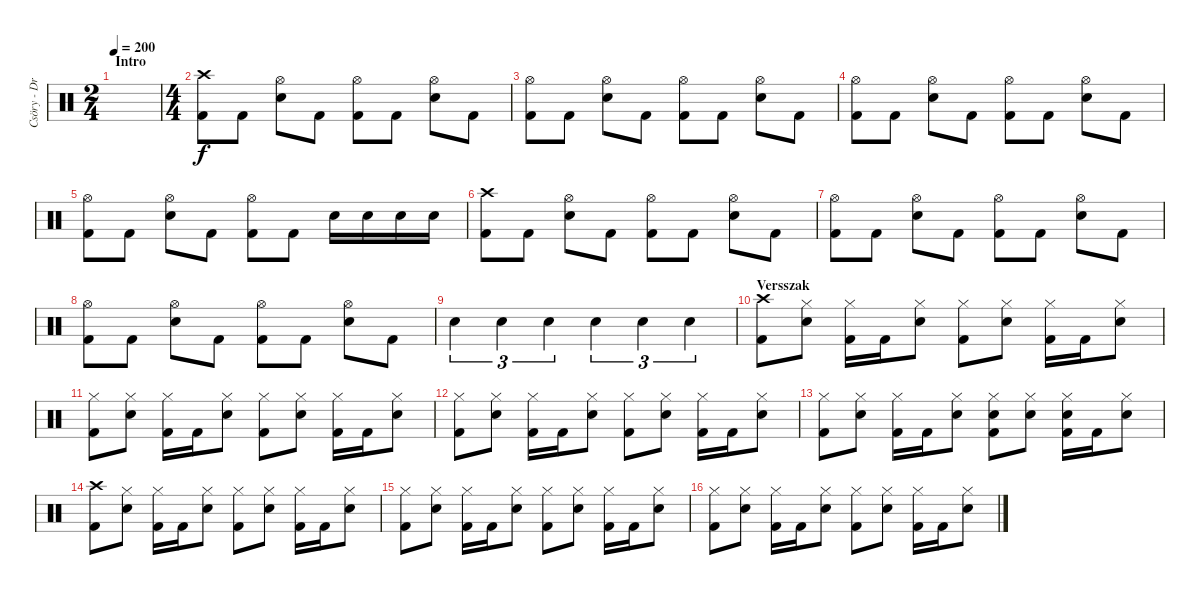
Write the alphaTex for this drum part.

\track ("Csöry - DrumZ" "Csöry - Dr") {instrument percussion}
\staff {score}
\articulation defaults
\ts (2 4)
\section ("" "Intro")
\tempo 200
\clef neutral
\ks c
|
\ts (4 4)
("Crash high (hit)" "Kick (hit) 2").8 "Kick (hit) 2".8 ("Hi-Hat (open)" "Snare (hit) 2").8 "Kick (hit) 2".8 ("Hi-Hat (open)" "Kick (hit) 2").8 "Kick (hit) 2".8 ("Hi-Hat (open)" "Snare (hit) 2").8 "Kick (hit) 2".8 |
("Hi-Hat (open)" "Kick (hit) 2").8 "Kick (hit) 2".8 ("Hi-Hat (open)" "Snare (hit) 2").8 "Kick (hit) 2".8 ("Hi-Hat (open)" "Kick (hit) 2").8 "Kick (hit) 2".8 ("Hi-Hat (open)" "Snare (hit) 2").8 "Kick (hit) 2".8 |
("Hi-Hat (open)" "Kick (hit) 2").8 "Kick (hit) 2".8 ("Hi-Hat (open)" "Snare (hit) 2").8 "Kick (hit) 2".8 ("Hi-Hat (open)" "Kick (hit) 2").8 "Kick (hit) 2".8 ("Hi-Hat (open)" "Snare (hit) 2").8 "Kick (hit) 2".8 |
("Hi-Hat (open)" "Kick (hit) 2").8 "Kick (hit) 2".8 ("Hi-Hat (open)" "Snare (hit) 2").8 "Kick (hit) 2".8 ("Hi-Hat (open)" "Kick (hit) 2").8 "Kick (hit) 2".8 "Snare (hit) 2".16 "Snare (hit) 2".16 "Snare (hit) 2".16 "Snare (hit) 2".16 |
("Crash high (hit)" "Kick (hit) 2").8 "Kick (hit) 2".8 ("Hi-Hat (open)" "Snare (hit) 2").8 "Kick (hit) 2".8 ("Hi-Hat (open)" "Kick (hit) 2").8 "Kick (hit) 2".8 ("Hi-Hat (open)" "Snare (hit) 2").8 "Kick (hit) 2".8 |
("Hi-Hat (open)" "Kick (hit) 2").8 "Kick (hit) 2".8 ("Hi-Hat (open)" "Snare (hit) 2").8 "Kick (hit) 2".8 ("Hi-Hat (open)" "Kick (hit) 2").8 "Kick (hit) 2".8 ("Hi-Hat (open)" "Snare (hit) 2").8 "Kick (hit) 2".8 |
("Hi-Hat (open)" "Kick (hit) 2").8 "Kick (hit) 2".8 ("Hi-Hat (open)" "Snare (hit) 2").8 "Kick (hit) 2".8 ("Hi-Hat (open)" "Kick (hit) 2").8 "Kick (hit) 2".8 ("Hi-Hat (open)" "Snare (hit) 2").8 "Kick (hit) 2".8 |
"Snare (hit) 2".4{tu (3 2)} "Snare (hit) 2".4{tu (3 2)} "Snare (hit) 2".4{tu (3 2)} "Snare (hit) 2".4{tu (3 2)} "Snare (hit) 2".4{tu (3 2)} "Snare (hit) 2".4{tu (3 2)} |
\section ("" "Versszak")
("Crash high (hit)" "Kick (hit) 2").8 ("Hi-Hat (closed)" "Snare (hit) 2").8 ("Hi-Hat (closed)" "Kick (hit) 2").16 "Kick (hit) 2".16 ("Hi-Hat (closed)" "Snare (hit) 2").8 ("Hi-Hat (closed)" "Kick (hit) 2").8 ("Hi-Hat (closed)" "Snare (hit) 2").8 ("Hi-Hat (closed)" "Kick (hit) 2").16 "Kick (hit) 2".16 ("Hi-Hat (closed)" "Snare (hit) 2").8 |
("Hi-Hat (closed)" "Kick (hit) 2").8 ("Hi-Hat (closed)" "Snare (hit) 2").8 ("Hi-Hat (closed)" "Kick (hit) 2").16 "Kick (hit) 2".16 ("Hi-Hat (closed)" "Snare (hit) 2").8 ("Hi-Hat (closed)" "Kick (hit) 2").8 ("Hi-Hat (closed)" "Snare (hit) 2").8 ("Hi-Hat (closed)" "Kick (hit) 2").16 "Kick (hit) 2".16 ("Hi-Hat (closed)" "Snare (hit) 2").8 |
("Hi-Hat (closed)" "Kick (hit) 2").8 ("Hi-Hat (closed)" "Snare (hit) 2").8 ("Hi-Hat (closed)" "Kick (hit) 2").16 "Kick (hit) 2".16 ("Hi-Hat (closed)" "Snare (hit) 2").8 ("Hi-Hat (closed)" "Kick (hit) 2").8 ("Hi-Hat (closed)" "Snare (hit) 2").8 ("Hi-Hat (closed)" "Kick (hit) 2").16 "Kick (hit) 2".16 ("Hi-Hat (closed)" "Snare (hit) 2").8 |
("Hi-Hat (closed)" "Kick (hit) 2").8 ("Hi-Hat (closed)" "Snare (hit) 2").8 ("Hi-Hat (closed)" "Kick (hit) 2").16 "Kick (hit) 2".16 ("Hi-Hat (closed)" "Snare (hit) 2").8 ("Hi-Hat (closed)" "Snare (hit) 2" "Kick (hit) 2").8 ("Hi-Hat (closed)" "Snare (hit) 2").8 ("Hi-Hat (closed)" "Snare (hit) 2" "Kick (hit) 2").16 "Kick (hit) 2".16 ("Hi-Hat (closed)" "Snare (hit) 2").8 |
("Crash high (hit)" "Kick (hit) 2").8 ("Hi-Hat (closed)" "Snare (hit) 2").8 ("Hi-Hat (closed)" "Kick (hit) 2").16 "Kick (hit) 2".16 ("Hi-Hat (closed)" "Snare (hit) 2").8 ("Hi-Hat (closed)" "Kick (hit) 2").8 ("Hi-Hat (closed)" "Snare (hit) 2").8 ("Hi-Hat (closed)" "Kick (hit) 2").16 "Kick (hit) 2".16 ("Hi-Hat (closed)" "Snare (hit) 2").8 |
("Hi-Hat (closed)" "Kick (hit) 2").8 ("Hi-Hat (closed)" "Snare (hit) 2").8 ("Hi-Hat (closed)" "Kick (hit) 2").16 "Kick (hit) 2".16 ("Hi-Hat (closed)" "Snare (hit) 2").8 ("Hi-Hat (closed)" "Kick (hit) 2").8 ("Hi-Hat (closed)" "Snare (hit) 2").8 ("Hi-Hat (closed)" "Kick (hit) 2").16 "Kick (hit) 2".16 ("Hi-Hat (closed)" "Snare (hit) 2").8 |
("Hi-Hat (closed)" "Kick (hit) 2").8 ("Hi-Hat (closed)" "Snare (hit) 2").8 ("Hi-Hat (closed)" "Kick (hit) 2").16 "Kick (hit) 2".16 ("Hi-Hat (closed)" "Snare (hit) 2").8 ("Hi-Hat (closed)" "Kick (hit) 2").8 ("Hi-Hat (closed)" "Snare (hit) 2").8 ("Hi-Hat (closed)" "Kick (hit) 2").16 "Kick (hit) 2".16 ("Hi-Hat (closed)" "Snare (hit) 2").8
